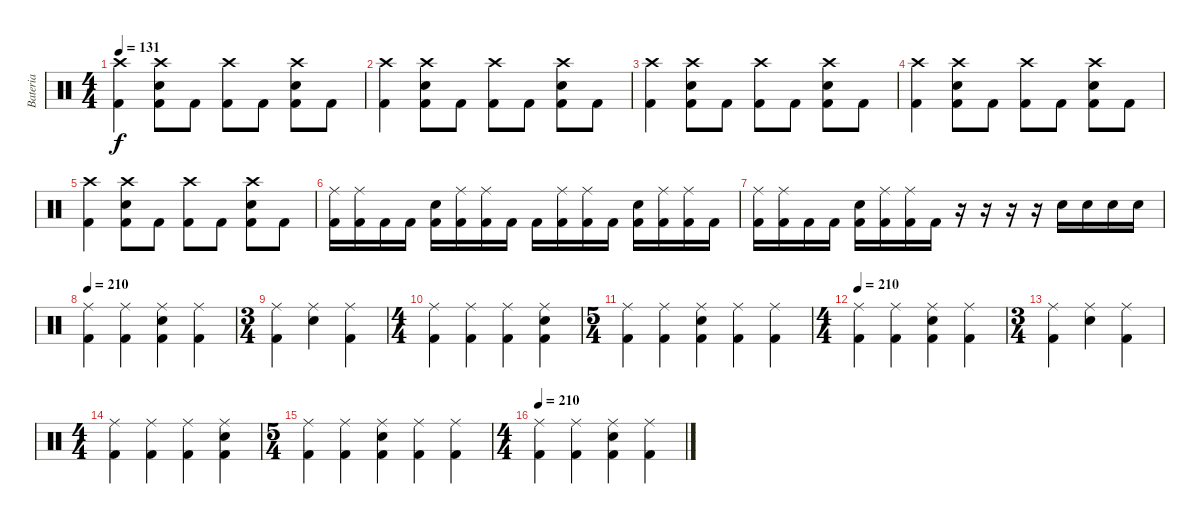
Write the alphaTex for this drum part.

\track ("Bateria" "Bateria") {instrument percussion}
\staff {score}
\articulation defaults
\ts (4 4)
\tempo 131
\clef neutral
\ks c
("Crash high (hit)" "Kick (hit) 2").4{dy f} ("Crash high (hit)" "Electric Snare (hit)" "Kick (hit) 2").8 "Kick (hit) 2".8 ("Crash high (hit)" "Kick (hit) 2").8 "Kick (hit) 2".8 ("Crash high (hit)" "Electric Snare (hit)" "Kick (hit) 2").8 "Kick (hit) 2".8 |
("Crash high (hit)" "Kick (hit) 2").4 ("Crash high (hit)" "Electric Snare (hit)" "Kick (hit) 2").8 "Kick (hit) 2".8 ("Crash high (hit)" "Kick (hit) 2").8 "Kick (hit) 2".8 ("Crash high (hit)" "Electric Snare (hit)" "Kick (hit) 2").8 "Kick (hit) 2".8 |
("Crash high (hit)" "Kick (hit) 2").4 ("Crash high (hit)" "Electric Snare (hit)" "Kick (hit) 2").8 "Kick (hit) 2".8 ("Crash high (hit)" "Kick (hit) 2").8 "Kick (hit) 2".8 ("Crash high (hit)" "Electric Snare (hit)" "Kick (hit) 2").8 "Kick (hit) 2".8 |
("Crash high (hit)" "Kick (hit) 2").4 ("Crash high (hit)" "Electric Snare (hit)" "Kick (hit) 2").8 "Kick (hit) 2".8 ("Crash high (hit)" "Kick (hit) 2").8 "Kick (hit) 2".8 ("Crash high (hit)" "Electric Snare (hit)" "Kick (hit) 2").8 "Kick (hit) 2".8 |
("Crash high (hit)" "Kick (hit) 2").4 ("Crash high (hit)" "Electric Snare (hit)" "Kick (hit) 2").8 "Kick (hit) 2".8 ("Crash high (hit)" "Kick (hit) 2").8 "Kick (hit) 2".8 ("Crash high (hit)" "Electric Snare (hit)" "Kick (hit) 2").8 "Kick (hit) 2".8 |
("Ride (middle)" "Kick (hit) 2").16 ("Ride (middle)" "Kick (hit) 2").16 "Kick (hit) 2".16 "Kick (hit) 2".16 ("Electric Snare (hit)" "Kick (hit) 2").16 ("Ride (middle)" "Kick (hit) 2").16 ("Ride (middle)" "Kick (hit) 2").16 "Kick (hit) 2".16 "Kick (hit) 2".16 ("Ride (middle)" "Kick (hit) 2").16 ("Ride (middle)" "Kick (hit) 2").16 "Kick (hit) 2".16 ("Electric Snare (hit)" "Kick (hit) 2").16 ("Ride (middle)" "Kick (hit) 2").16 ("Ride (middle)" "Kick (hit) 2").16 "Kick (hit) 2".16 |
("Ride (middle)" "Kick (hit) 2").16 ("Ride (middle)" "Kick (hit) 2").16 "Kick (hit) 2".16 "Kick (hit) 2".16 ("Electric Snare (hit)" "Kick (hit) 2").16 ("Ride (middle)" "Kick (hit) 2").16 ("Ride (middle)" "Kick (hit) 2").16 "Kick (hit) 2".16 r.16 r.16 r.16 r.16 "Electric Snare (hit)".16 "Electric Snare (hit)".16 "Electric Snare (hit)".16 "Electric Snare (hit)".16 |
\tempo 210
("Ride (middle)" "Kick (hit) 2").4 ("Ride (middle)" "Kick (hit) 2").4 ("Ride (middle)" "Kick (hit) 2" "Electric Snare (hit)").4 ("Ride (middle)" "Kick (hit) 2").4 |
\ts (3 4)
("Ride (middle)" "Kick (hit) 2").4 ("Ride (middle)" "Electric Snare (hit)").4 ("Ride (middle)" "Kick (hit) 2").4 |
\ts (4 4)
("Ride (middle)" "Kick (hit) 2").4 ("Ride (middle)" "Kick (hit) 2").4 ("Ride (middle)" "Kick (hit) 2").4 ("Ride (middle)" "Electric Snare (hit)" "Kick (hit) 2").4 |
\ts (5 4)
("Ride (middle)" "Kick (hit) 2").4 ("Ride (middle)" "Kick (hit) 2").4 ("Ride (middle)" "Electric Snare (hit)" "Kick (hit) 2").4 ("Ride (middle)" "Kick (hit) 2").4 ("Ride (middle)" "Kick (hit) 2").4 |
\ts (4 4)
\tempo 210
("Ride (middle)" "Kick (hit) 2").4 ("Ride (middle)" "Kick (hit) 2").4 ("Ride (middle)" "Kick (hit) 2" "Electric Snare (hit)").4 ("Ride (middle)" "Kick (hit) 2").4 |
\ts (3 4)
("Ride (middle)" "Kick (hit) 2").4 ("Ride (middle)" "Electric Snare (hit)").4 ("Ride (middle)" "Kick (hit) 2").4 |
\ts (4 4)
("Ride (middle)" "Kick (hit) 2").4 ("Ride (middle)" "Kick (hit) 2").4 ("Ride (middle)" "Kick (hit) 2").4 ("Ride (middle)" "Electric Snare (hit)" "Kick (hit) 2").4 |
\ts (5 4)
("Ride (middle)" "Kick (hit) 2").4 ("Ride (middle)" "Kick (hit) 2").4 ("Ride (middle)" "Electric Snare (hit)" "Kick (hit) 2").4 ("Ride (middle)" "Kick (hit) 2").4 ("Ride (middle)" "Kick (hit) 2").4 |
\ts (4 4)
\tempo 210
("Ride (middle)" "Kick (hit) 2").4 ("Ride (middle)" "Kick (hit) 2").4 ("Ride (middle)" "Kick (hit) 2" "Electric Snare (hit)").4 ("Ride (middle)" "Kick (hit) 2").4
